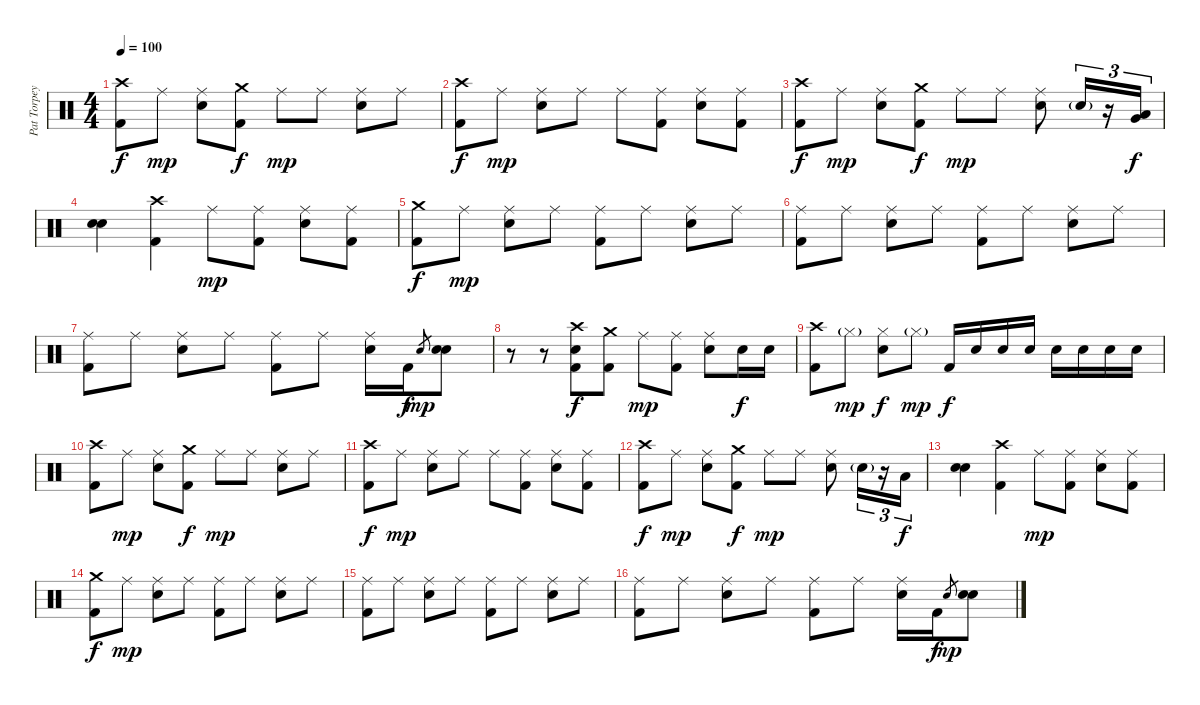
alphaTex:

\track ("Pat Torpey" "Pat Torpey") {instrument percussion}
\staff {score}
\articulation defaults
\ts (4 4)
\tempo 100
\clef neutral
\ks c
("Crash high (hit)" "Kick (hit) 2").8{dy f} "Ride (middle)".8{dy mp} ("Ride (middle)" "Electric Snare (hit)").8 ("Crash medium (hit)" "Kick (hit) 2").8{dy f} "Ride (middle)".8{dy mp} "Ride (middle)".8 ("Ride (middle)" "Electric Snare (hit)").8 "Ride (middle)".8 |
("Crash high (hit)" "Kick (hit) 2").8{dy f} "Ride (middle)".8{dy mp} ("Ride (middle)" "Electric Snare (hit)").8 "Ride (middle)".8 "Ride (middle)".8 ("Ride (middle)" "Kick (hit) 2").8 ("Ride (middle)" "Electric Snare (hit)").8 ("Ride (middle)" "Kick (hit) 2").8 |
("Crash high (hit)" "Kick (hit) 2").8{dy f} "Ride (middle)".8{dy mp} ("Ride (middle)" "Electric Snare (hit)").8 ("Crash medium (hit)" "Kick (hit) 2").8{dy f} "Ride (middle)".8{dy mp} "Ride (middle)".8 ("Ride (middle)" "Electric Snare (hit)").8 "Electric Snare (hit)"{g}.16{tu (3 2)} r.16{tu (3 2)} ("Low Floor Tom (hit)" "Very Low Tom (hit)").16{tu (3 2) bd 30 dy f} |
("Electric Snare (hit)" "Electric Snare (hit)").4{bd 60} ("Crash high (hit)" "Kick (hit) 2").4 "Ride (middle)".8{dy mp} ("Ride (middle)" "Kick (hit) 2").8 ("Ride (middle)" "Electric Snare (hit)").8 ("Ride (middle)" "Kick (hit) 2").8 |
("Crash medium (hit)" "Kick (hit) 2").8{dy f} "Ride (middle)".8{dy mp} ("Ride (middle)" "Electric Snare (hit)").8 "Ride (middle)".8 ("Ride (middle)" "Kick (hit) 2").8 "Ride (middle)".8 ("Ride (middle)" "Electric Snare (hit)").8 "Ride (middle)".8 |
("Ride (middle)" "Kick (hit) 2").8 "Ride (middle)".8 ("Ride (middle)" "Electric Snare (hit)").8 "Ride (middle)".8 ("Ride (middle)" "Kick (hit) 2").8 "Ride (middle)".8 ("Ride (middle)" "Electric Snare (hit)").8 "Ride (middle)".8 |
("Ride (middle)" "Kick (hit) 2").8 "Ride (middle)".8 ("Ride (middle)" "Electric Snare (hit)").8 "Ride (middle)".8 ("Ride (middle)" "Kick (hit) 2").8 "Ride (middle)".8 ("Ride (middle)" "Electric Snare (hit)").16 "Kick (hit) 2".16{dy f} "Electric Snare (hit)".8{gr dy mp} ("Electric Snare (hit)" "Electric Snare (hit)").8 |
r.8 r.8 ("Crash high (hit)" "Electric Snare (hit)" "Kick (hit) 2").8{dy f} ("Crash medium (hit)" "Kick (hit) 2").8 "Ride (middle)".8{dy mp} ("Ride (middle)" "Kick (hit) 2").8 ("Ride (middle)" "Electric Snare (hit)").8 "Electric Snare (hit)".16{dy f} "Electric Snare (hit)".16 |
("Crash high (hit)" "Kick (hit) 2").8 "Hi-Hat (closed)"{g}.8{dy mp} ("Hi-Hat (closed)" "Electric Snare (hit)").8{dy f} "Hi-Hat (closed)"{g}.8{dy mp} "Kick (hit) 2".16{dy f} "Electric Snare (hit)".16 "Electric Snare (hit)".16 "Electric Snare (hit)".16 "Electric Snare (hit)".16 "Electric Snare (hit)".16 "Electric Snare (hit)".16 "Electric Snare (hit)".16 |
("Crash high (hit)" "Kick (hit) 2").8 "Ride (middle)".8{dy mp} ("Ride (middle)" "Electric Snare (hit)").8 ("Crash medium (hit)" "Kick (hit) 2").8{dy f} "Ride (middle)".8{dy mp} "Ride (middle)".8 ("Ride (middle)" "Electric Snare (hit)").8 "Ride (middle)".8 |
("Crash high (hit)" "Kick (hit) 2").8{dy f} "Ride (middle)".8{dy mp} ("Ride (middle)" "Electric Snare (hit)").8 "Ride (middle)".8 "Ride (middle)".8 ("Ride (middle)" "Kick (hit) 2").8 ("Ride (middle)" "Electric Snare (hit)").8 ("Ride (middle)" "Kick (hit) 2").8 |
("Crash high (hit)" "Kick (hit) 2").8{dy f} "Ride (middle)".8{dy mp} ("Ride (middle)" "Electric Snare (hit)").8 ("Crash medium (hit)" "Kick (hit) 2").8{dy f} "Ride (middle)".8{dy mp} "Ride (middle)".8 ("Ride (middle)" "Electric Snare (hit)").8 "Electric Snare (hit)"{g}.16{tu (3 2)} r.16{tu (3 2)} "Low Tom (hit)".16{tu (3 2) dy f} |
("Electric Snare (hit)" "Electric Snare (hit)").4{bd 60} ("Crash high (hit)" "Kick (hit) 2").4 "Ride (middle)".8{dy mp} ("Ride (middle)" "Kick (hit) 2").8 ("Ride (middle)" "Electric Snare (hit)").8 ("Ride (middle)" "Kick (hit) 2").8 |
("Crash medium (hit)" "Kick (hit) 2").8{dy f} "Ride (middle)".8{dy mp} ("Ride (middle)" "Electric Snare (hit)").8 "Ride (middle)".8 ("Ride (middle)" "Kick (hit) 2").8 "Ride (middle)".8 ("Ride (middle)" "Electric Snare (hit)").8 "Ride (middle)".8 |
("Ride (middle)" "Kick (hit) 2").8 "Ride (middle)".8 ("Ride (middle)" "Electric Snare (hit)").8 "Ride (middle)".8 ("Ride (middle)" "Kick (hit) 2").8 "Ride (middle)".8 ("Ride (middle)" "Electric Snare (hit)").8 "Ride (middle)".8 |
("Ride (middle)" "Kick (hit) 2").8 "Ride (middle)".8 ("Ride (middle)" "Electric Snare (hit)").8 "Ride (middle)".8 ("Ride (middle)" "Kick (hit) 2").8 "Ride (middle)".8 ("Ride (middle)" "Electric Snare (hit)").16 "Kick (hit) 2".16{dy f} "Electric Snare (hit)".8{gr dy mp} ("Electric Snare (hit)" "Electric Snare (hit)").8
